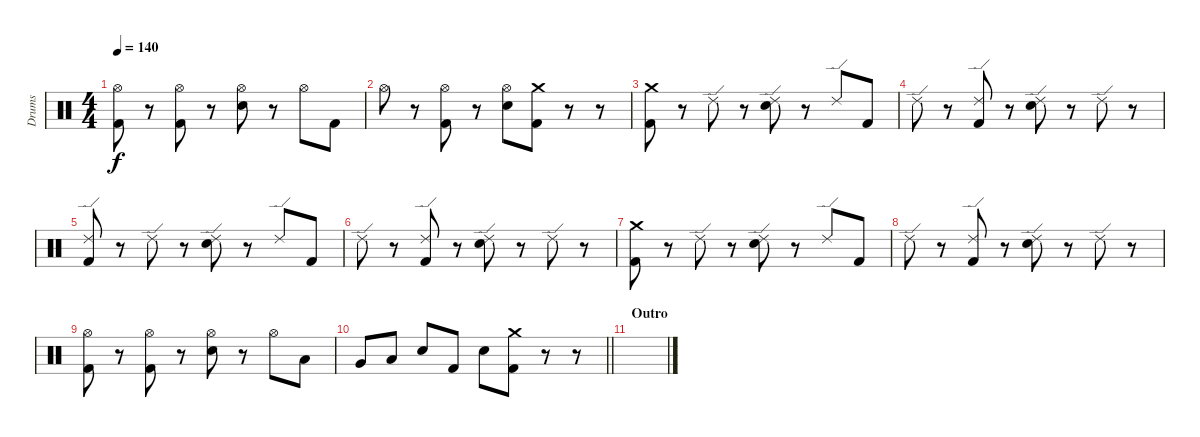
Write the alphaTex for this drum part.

\track ("Drums" "Drums") {instrument percussion}
\staff {score}
\articulation defaults
\ts (4 4)
\tempo 140
\clef neutral
\ks c
("Hi-Hat (open)" "Kick (hit) 2").8{dy f} r.8 ("Hi-Hat (open)" "Kick (hit) 2").8 r.8 ("Hi-Hat (open)" "Electric Snare (hit)").8 r.8 "Hi-Hat (open)".8 "Kick (hit) 2".8 |
"Hi-Hat (open)".8 r.8 ("Hi-Hat (open)" "Kick (hit) 2").8 r.8 ("Hi-Hat (open)" "Electric Snare (hit)").8 ("Crash medium (hit)" "Kick (hit) 2").8 r.8 r.8 |
("Crash medium (hit)" "Kick (hit) 2").8 r.8 "Ride (edge) 2".8 r.8 ("Ride (edge) 2" "Electric Snare (hit)").8 r.8 "Ride (edge) 2".8 "Kick (hit) 2".8 |
"Ride (edge) 2".8 r.8 ("Ride (edge) 2" "Kick (hit) 2").8 r.8 ("Ride (edge) 2" "Electric Snare (hit)").8 r.8 "Ride (edge) 2".8 r.8 |
("Ride (edge) 2" "Kick (hit) 2").8 r.8 "Ride (edge) 2".8 r.8 ("Ride (edge) 2" "Electric Snare (hit)").8 r.8 "Ride (edge) 2".8 "Kick (hit) 2".8 |
"Ride (edge) 2".8 r.8 ("Ride (edge) 2" "Kick (hit) 2").8 r.8 ("Ride (edge) 2" "Electric Snare (hit)").8 r.8 "Ride (edge) 2".8 r.8 |
("Crash medium (hit)" "Kick (hit) 2").8 r.8 "Ride (edge) 2".8 r.8 ("Ride (edge) 2" "Electric Snare (hit)").8 r.8 "Ride (edge) 2".8 "Kick (hit) 2".8 |
"Ride (edge) 2".8 r.8 ("Ride (edge) 2" "Kick (hit) 2").8 r.8 ("Ride (edge) 2" "Electric Snare (hit)").8 r.8 "Ride (edge) 2".8 r.8 |
("Hi-Hat (open)" "Kick (hit) 2").8 r.8 ("Hi-Hat (open)" "Kick (hit) 2").8 r.8 ("Hi-Hat (open)" "Electric Snare (hit)").8 r.8 "Hi-Hat (open)".8 "Low Tom (hit)".8 |
\barLineRight lightlight "Very Low Tom (hit)".8 "Low Tom (hit)".8 "Electric Snare (hit)".8 "Kick (hit) 2".8 "Electric Snare (hit)".8
("Crash medium (hit)" "Kick (hit) 2").8 r.8 r.8 |
\section ("" "Outro")
